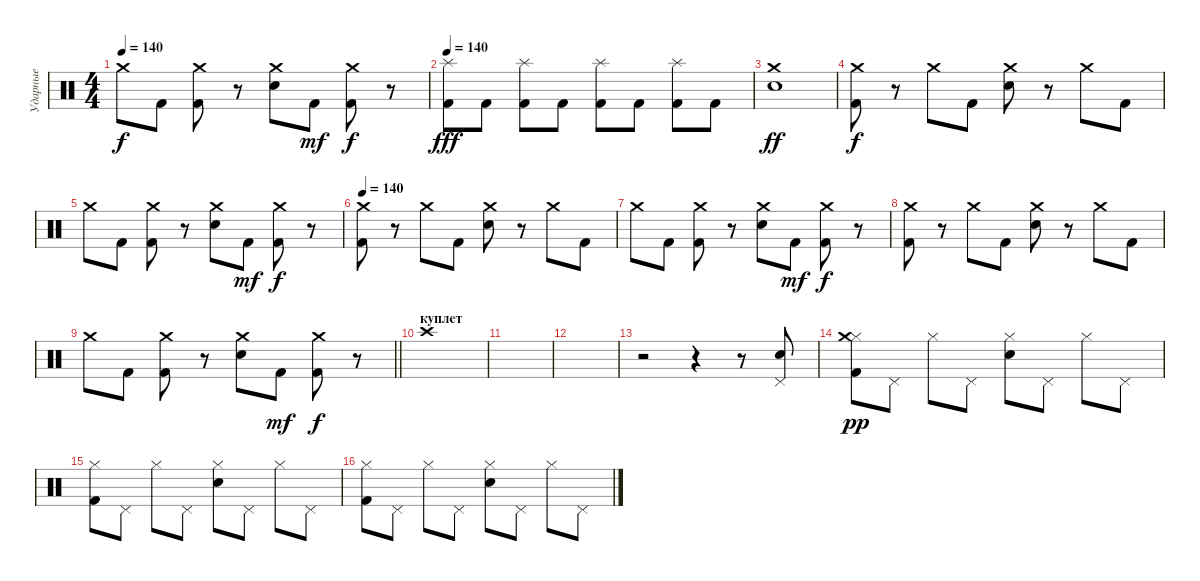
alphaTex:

\track ("Ударные" "Ударные") {instrument percussion}
\staff {score}
\articulation defaults
\ts (4 4)
\tempo 140
\clef neutral
\ks c "Crash medium (hit)".8{dy f} "Kick (hit) 2".8
("Crash medium (hit)" "Kick (hit) 2").8 r.8 ("Crash medium (hit)" "Snare (hit) 2").8 "Kick (hit) 2".8{dy mf} ("Crash medium (hit)" "Kick (hit) 2").8{dy f} r.8 |
\tempo 140
("Splash (hit)" "Kick (hit) 2").8{dy fff} "Kick (hit) 2".8 ("Splash (hit)" "Kick (hit) 2").8 "Kick (hit) 2".8 ("Splash (hit)" "Kick (hit) 2").8 "Kick (hit) 2".8 ("Splash (hit)" "Kick (hit) 2").8 "Kick (hit) 2".8 |
("Crash medium (hit)" "Snare (hit) 2").1{dy ff} |
("Crash medium (hit)" "Kick (hit) 2").8{dy f} r.8 "Crash medium (hit)".8 "Kick (hit) 2".8 ("Crash medium (hit)" "Snare (hit) 2").8 r.8 "Crash medium (hit)".8 "Kick (hit) 2".8 |
"Crash medium (hit)".8 "Kick (hit) 2".8 ("Crash medium (hit)" "Kick (hit) 2").8 r.8 ("Crash medium (hit)" "Snare (hit) 2").8 "Kick (hit) 2".8{dy mf} ("Crash medium (hit)" "Kick (hit) 2").8{dy f} r.8 |
\tempo 140
("Crash medium (hit)" "Kick (hit) 2").8 r.8 "Crash medium (hit)".8 "Kick (hit) 2".8 ("Crash medium (hit)" "Snare (hit) 2").8 r.8 "Crash medium (hit)".8 "Kick (hit) 2".8 |
"Crash medium (hit)".8 "Kick (hit) 2".8 ("Crash medium (hit)" "Kick (hit) 2").8 r.8 ("Crash medium (hit)" "Snare (hit) 2").8 "Kick (hit) 2".8{dy mf} ("Crash medium (hit)" "Kick (hit) 2").8{dy f} r.8 |
("Crash medium (hit)" "Kick (hit) 2").8 r.8 "Crash medium (hit)".8 "Kick (hit) 2".8 ("Crash medium (hit)" "Snare (hit) 2").8 r.8 "Crash medium (hit)".8 "Kick (hit) 2".8 |
\barLineRight lightlight "Crash medium (hit)".8 "Kick (hit) 2".8
("Crash medium (hit)" "Kick (hit) 2").8 r.8 ("Crash medium (hit)" "Snare (hit) 2").8 "Kick (hit) 2".8{dy mf} ("Crash medium (hit)" "Kick (hit) 2").8{dy f} r.8 |
\section ("" "куплет")
"Crash high (hit)".1 |
|
|
r.2 r.4 r.8 ("Pedal Hi-Hat (hit)" "Snare (hit) 2").8 |
("Hi-Hat (closed)" "Crash medium (hit)" "Kick (hit) 2").8{dy pp} "Pedal Hi-Hat (hit)".8 "Hi-Hat (closed)".8 "Pedal Hi-Hat (hit)".8 ("Hi-Hat (closed)" "Snare (hit) 2").8 "Pedal Hi-Hat (hit)".8 "Hi-Hat (closed)".8 "Pedal Hi-Hat (hit)".8 |
("Hi-Hat (closed)" "Kick (hit) 2").8 "Pedal Hi-Hat (hit)".8 "Hi-Hat (closed)".8 "Pedal Hi-Hat (hit)".8 ("Hi-Hat (closed)" "Snare (hit) 2").8 "Pedal Hi-Hat (hit)".8 "Hi-Hat (closed)".8 "Pedal Hi-Hat (hit)".8 |
("Hi-Hat (closed)" "Kick (hit) 2").8 "Pedal Hi-Hat (hit)".8 "Hi-Hat (closed)".8 "Pedal Hi-Hat (hit)".8 ("Hi-Hat (closed)" "Snare (hit) 2").8 "Pedal Hi-Hat (hit)".8 "Hi-Hat (closed)".8 "Pedal Hi-Hat (hit)".8
